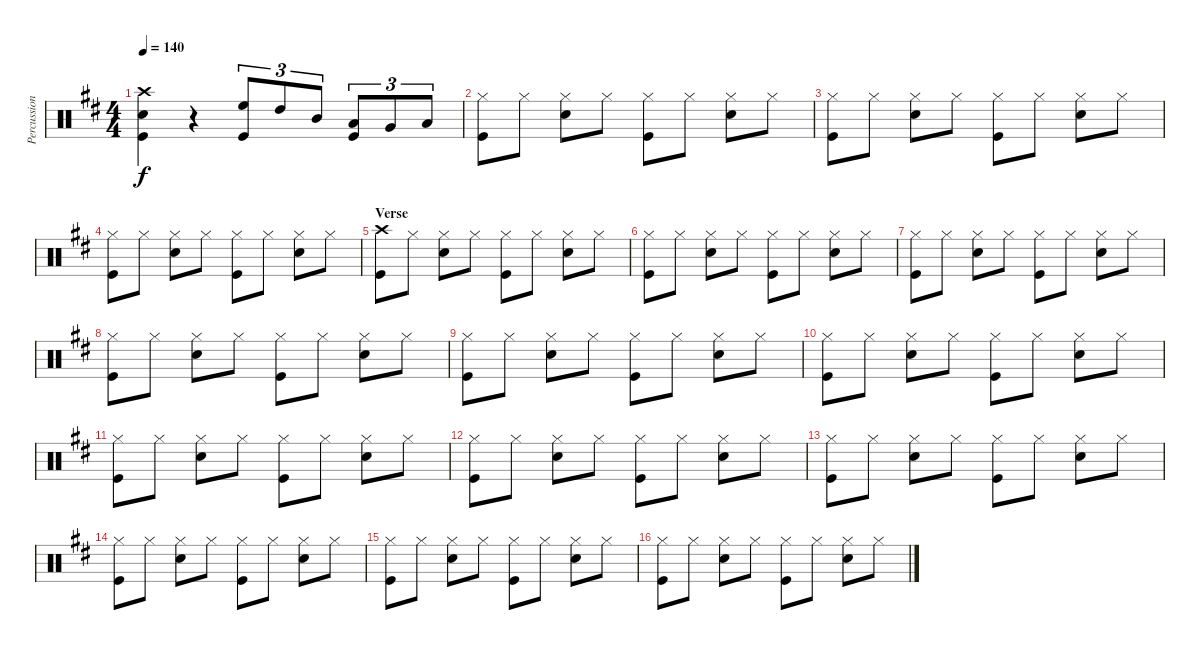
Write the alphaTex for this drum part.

\track ("Percussion" "Percussion") {instrument percussion}
\staff {score}
\articulation defaults
\ts (4 4)
\tempo 140
\clef neutral
\ks d
("Crash high (hit)" "Snare (hit) 2" "Kick (hit)").4{dy f} r.4 ("High Floor Tom (hit)" "Kick (hit)").8{tu (3 2)} "High Tom (hit)".8{tu (3 2)} "Mid Tom (hit)".8{tu (3 2)} ("Low Tom (hit)" "Kick (hit)").8{tu (3 2)} "Very Low Tom (hit)".8{tu (3 2)} "Low Floor Tom (hit)".8{tu (3 2)} |
("Hi-Hat (closed)" "Kick (hit)").8 "Hi-Hat (closed)".8 ("Hi-Hat (closed)" "Snare (hit) 2").8 "Hi-Hat (closed)".8 ("Hi-Hat (closed)" "Kick (hit)").8 "Hi-Hat (closed)".8 ("Hi-Hat (closed)" "Snare (hit) 2").8 "Hi-Hat (closed)".8 |
("Hi-Hat (closed)" "Kick (hit)").8 "Hi-Hat (closed)".8 ("Hi-Hat (closed)" "Snare (hit) 2").8 "Hi-Hat (closed)".8 ("Hi-Hat (closed)" "Kick (hit)").8 "Hi-Hat (closed)".8 ("Hi-Hat (closed)" "Snare (hit) 2").8 "Hi-Hat (closed)".8 |
("Hi-Hat (closed)" "Kick (hit)").8 "Hi-Hat (closed)".8 ("Hi-Hat (closed)" "Snare (hit) 2").8 "Hi-Hat (closed)".8 ("Hi-Hat (closed)" "Kick (hit)").8 "Hi-Hat (closed)".8 ("Hi-Hat (closed)" "Snare (hit) 2").8 "Hi-Hat (closed)".8 |
\section ("" "Verse")
("Crash high (hit)" "Kick (hit)").8 "Hi-Hat (closed)".8 ("Hi-Hat (closed)" "Snare (hit) 2").8 "Hi-Hat (closed)".8 ("Hi-Hat (closed)" "Kick (hit)").8 "Hi-Hat (closed)".8 ("Hi-Hat (closed)" "Snare (hit) 2").8 "Hi-Hat (closed)".8 |
("Hi-Hat (closed)" "Kick (hit)").8 "Hi-Hat (closed)".8 ("Hi-Hat (closed)" "Snare (hit) 2").8 "Hi-Hat (closed)".8 ("Hi-Hat (closed)" "Kick (hit)").8 "Hi-Hat (closed)".8 ("Hi-Hat (closed)" "Snare (hit) 2").8 "Hi-Hat (closed)".8 |
("Hi-Hat (closed)" "Kick (hit)").8 "Hi-Hat (closed)".8 ("Hi-Hat (closed)" "Snare (hit) 2").8 "Hi-Hat (closed)".8 ("Hi-Hat (closed)" "Kick (hit)").8 "Hi-Hat (closed)".8 ("Hi-Hat (closed)" "Snare (hit) 2").8 "Hi-Hat (closed)".8 |
("Hi-Hat (closed)" "Kick (hit)").8 "Hi-Hat (closed)".8 ("Hi-Hat (closed)" "Snare (hit) 2").8 "Hi-Hat (closed)".8 ("Hi-Hat (closed)" "Kick (hit)").8 "Hi-Hat (closed)".8 ("Hi-Hat (closed)" "Snare (hit) 2").8 "Hi-Hat (closed)".8 |
("Hi-Hat (closed)" "Kick (hit)").8 "Hi-Hat (closed)".8 ("Hi-Hat (closed)" "Snare (hit) 2").8 "Hi-Hat (closed)".8 ("Hi-Hat (closed)" "Kick (hit)").8 "Hi-Hat (closed)".8 ("Hi-Hat (closed)" "Snare (hit) 2").8 "Hi-Hat (closed)".8 |
("Hi-Hat (closed)" "Kick (hit)").8 "Hi-Hat (closed)".8 ("Hi-Hat (closed)" "Snare (hit) 2").8 "Hi-Hat (closed)".8 ("Hi-Hat (closed)" "Kick (hit)").8 "Hi-Hat (closed)".8 ("Hi-Hat (closed)" "Snare (hit) 2").8 "Hi-Hat (closed)".8 |
("Hi-Hat (closed)" "Kick (hit)").8 "Hi-Hat (closed)".8 ("Hi-Hat (closed)" "Snare (hit) 2").8 "Hi-Hat (closed)".8 ("Hi-Hat (closed)" "Kick (hit)").8 "Hi-Hat (closed)".8 ("Hi-Hat (closed)" "Snare (hit) 2").8 "Hi-Hat (closed)".8 |
("Hi-Hat (closed)" "Kick (hit)").8 "Hi-Hat (closed)".8 ("Hi-Hat (closed)" "Snare (hit) 2").8 "Hi-Hat (closed)".8 ("Hi-Hat (closed)" "Kick (hit)").8 "Hi-Hat (closed)".8 ("Hi-Hat (closed)" "Snare (hit) 2").8 "Hi-Hat (closed)".8 |
("Hi-Hat (closed)" "Kick (hit)").8 "Hi-Hat (closed)".8 ("Hi-Hat (closed)" "Snare (hit) 2").8 "Hi-Hat (closed)".8 ("Hi-Hat (closed)" "Kick (hit)").8 "Hi-Hat (closed)".8 ("Hi-Hat (closed)" "Snare (hit) 2").8 "Hi-Hat (closed)".8 |
("Hi-Hat (closed)" "Kick (hit)").8 "Hi-Hat (closed)".8 ("Hi-Hat (closed)" "Snare (hit) 2").8 "Hi-Hat (closed)".8 ("Hi-Hat (closed)" "Kick (hit)").8 "Hi-Hat (closed)".8 ("Hi-Hat (closed)" "Snare (hit) 2").8 "Hi-Hat (closed)".8 |
("Hi-Hat (closed)" "Kick (hit)").8 "Hi-Hat (closed)".8 ("Hi-Hat (closed)" "Snare (hit) 2").8 "Hi-Hat (closed)".8 ("Hi-Hat (closed)" "Kick (hit)").8 "Hi-Hat (closed)".8 ("Hi-Hat (closed)" "Snare (hit) 2").8 "Hi-Hat (closed)".8 |
("Hi-Hat (closed)" "Kick (hit)").8 "Hi-Hat (closed)".8 ("Hi-Hat (closed)" "Snare (hit) 2").8 "Hi-Hat (closed)".8 ("Hi-Hat (closed)" "Kick (hit)").8 "Hi-Hat (closed)".8 ("Hi-Hat (closed)" "Snare (hit) 2").8 "Hi-Hat (closed)".8
